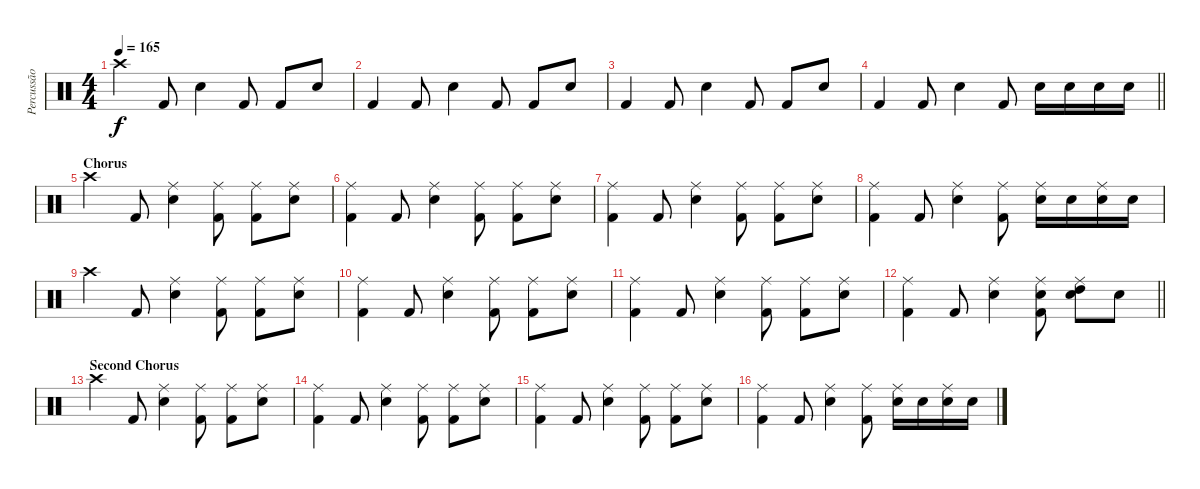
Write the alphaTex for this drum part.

\track ("Percussão" "Percussão") {instrument percussion}
\staff {score}
\articulation defaults
\ts (4 4)
\tempo 165
\clef neutral
\ks c "Crash high (hit)".4{dy f} "Kick (hit) 2".8 "Snare (hit) 2".4 "Kick (hit) 2".8 "Kick (hit) 2".8 "Snare (hit) 2".8
|
"Kick (hit) 2".4 "Kick (hit) 2".8 "Snare (hit) 2".4 "Kick (hit) 2".8 "Kick (hit) 2".8 "Snare (hit) 2".8 |
"Kick (hit) 2".4 "Kick (hit) 2".8 "Snare (hit) 2".4 "Kick (hit) 2".8 "Kick (hit) 2".8 "Snare (hit) 2".8 |
\barLineRight lightlight "Kick (hit) 2".4 "Kick (hit) 2".8 "Snare (hit) 2".4 "Kick (hit) 2".8 "Snare (hit) 2".16 "Snare (hit) 2".16 "Snare (hit) 2".16 "Snare (hit) 2".16
|
\section ("" "Chorus")
"Crash high (hit)".4 "Kick (hit) 2".8 ("Ride (middle)" "Snare (hit) 2").4 ("Ride (middle)" "Kick (hit) 2").8 ("Ride (middle)" "Kick (hit) 2").8 ("Ride (middle)" "Snare (hit) 2").8 |
("Ride (middle)" "Kick (hit) 2").4 "Kick (hit) 2".8 ("Ride (middle)" "Snare (hit) 2").4 ("Ride (middle)" "Kick (hit) 2").8 ("Ride (middle)" "Kick (hit) 2").8 ("Ride (middle)" "Snare (hit) 2").8 |
("Ride (middle)" "Kick (hit) 2").4 "Kick (hit) 2".8 ("Ride (middle)" "Snare (hit) 2").4 ("Ride (middle)" "Kick (hit) 2").8 ("Ride (middle)" "Kick (hit) 2").8 ("Ride (middle)" "Snare (hit) 2").8 |
("Ride (middle)" "Kick (hit) 2").4 "Kick (hit) 2".8 ("Ride (middle)" "Snare (hit) 2").4 ("Ride (middle)" "Kick (hit) 2").8 ("Ride (middle)" "Snare (hit) 2").16 "Snare (hit) 2".16 ("Ride (middle)" "Snare (hit) 2").16 "Snare (hit) 2".16 |
"Crash high (hit)".4 "Kick (hit) 2".8 ("Ride (middle)" "Snare (hit) 2").4 ("Ride (middle)" "Kick (hit) 2").8 ("Ride (middle)" "Kick (hit) 2").8 ("Ride (middle)" "Snare (hit) 2").8 |
("Ride (middle)" "Kick (hit) 2").4 "Kick (hit) 2".8 ("Ride (middle)" "Snare (hit) 2").4 ("Ride (middle)" "Kick (hit) 2").8 ("Ride (middle)" "Kick (hit) 2").8 ("Ride (middle)" "Snare (hit) 2").8 |
("Ride (middle)" "Kick (hit) 2").4 "Kick (hit) 2".8 ("Ride (middle)" "Snare (hit) 2").4 ("Ride (middle)" "Kick (hit) 2").8 ("Ride (middle)" "Kick (hit) 2").8 ("Ride (middle)" "Snare (hit) 2").8 |
\barLineRight lightlight
("Ride (middle)" "Kick (hit) 2").4 "Kick (hit) 2".8 ("Ride (middle)" "Snare (hit) 2").4 ("Ride (middle)" "Snare (hit) 2" "Kick (hit) 2").8 ("Ride (middle)" "Snare (hit) 2" "High Tom (hit)").8 "Snare (hit) 2".8 |
\section ("" "Second Chorus")
"Crash high (hit)".4 "Kick (hit) 2".8 ("Ride (middle)" "Snare (hit) 2").4 ("Ride (middle)" "Kick (hit) 2").8 ("Ride (middle)" "Kick (hit) 2").8 ("Ride (middle)" "Snare (hit) 2").8 |
("Ride (middle)" "Kick (hit) 2").4 "Kick (hit) 2".8 ("Ride (middle)" "Snare (hit) 2").4 ("Ride (middle)" "Kick (hit) 2").8 ("Ride (middle)" "Kick (hit) 2").8 ("Ride (middle)" "Snare (hit) 2").8 |
("Ride (middle)" "Kick (hit) 2").4 "Kick (hit) 2".8 ("Ride (middle)" "Snare (hit) 2").4 ("Ride (middle)" "Kick (hit) 2").8 ("Ride (middle)" "Kick (hit) 2").8 ("Ride (middle)" "Snare (hit) 2").8 |
("Ride (middle)" "Kick (hit) 2").4 "Kick (hit) 2".8 ("Ride (middle)" "Snare (hit) 2").4 ("Ride (middle)" "Kick (hit) 2").8 ("Ride (middle)" "Snare (hit) 2").16 "Snare (hit) 2".16 ("Ride (middle)" "Snare (hit) 2").16 "Snare (hit) 2".16
